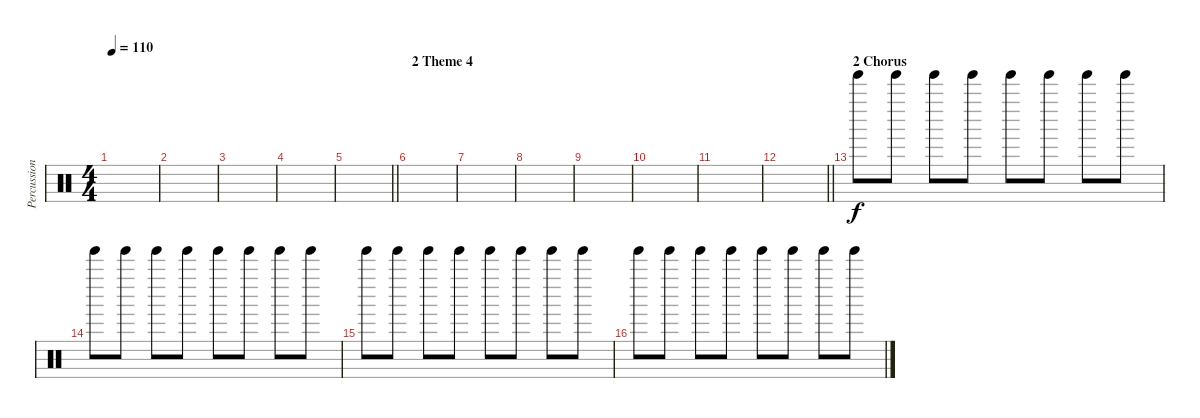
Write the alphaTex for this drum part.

\track ("Percussion" "Percussion") {instrument percussion}
\staff {score}
\articulation defaults
\ts (4 4)
\tempo 110
\clef neutral
\ks c
|
|
|
|
\barLineRight lightlight
|
\section ("" "2 Theme 4")
|
|
|
|
|
|
\barLineRight lightlight
|
\section ("" "2 Chorus")
"Tinkle Bell (hit)".8 "Tinkle Bell (hit)".8 "Tinkle Bell (hit)".8 "Tinkle Bell (hit)".8 "Tinkle Bell (hit)".8 "Tinkle Bell (hit)".8 "Tinkle Bell (hit)".8 "Tinkle Bell (hit)".8 |
"Tinkle Bell (hit)".8 "Tinkle Bell (hit)".8 "Tinkle Bell (hit)".8 "Tinkle Bell (hit)".8 "Tinkle Bell (hit)".8 "Tinkle Bell (hit)".8 "Tinkle Bell (hit)".8 "Tinkle Bell (hit)".8 |
"Tinkle Bell (hit)".8 "Tinkle Bell (hit)".8 "Tinkle Bell (hit)".8 "Tinkle Bell (hit)".8 "Tinkle Bell (hit)".8 "Tinkle Bell (hit)".8 "Tinkle Bell (hit)".8 "Tinkle Bell (hit)".8 |
"Tinkle Bell (hit)".8 "Tinkle Bell (hit)".8 "Tinkle Bell (hit)".8 "Tinkle Bell (hit)".8 "Tinkle Bell (hit)".8 "Tinkle Bell (hit)".8 "Tinkle Bell (hit)".8 "Tinkle Bell (hit)".8
